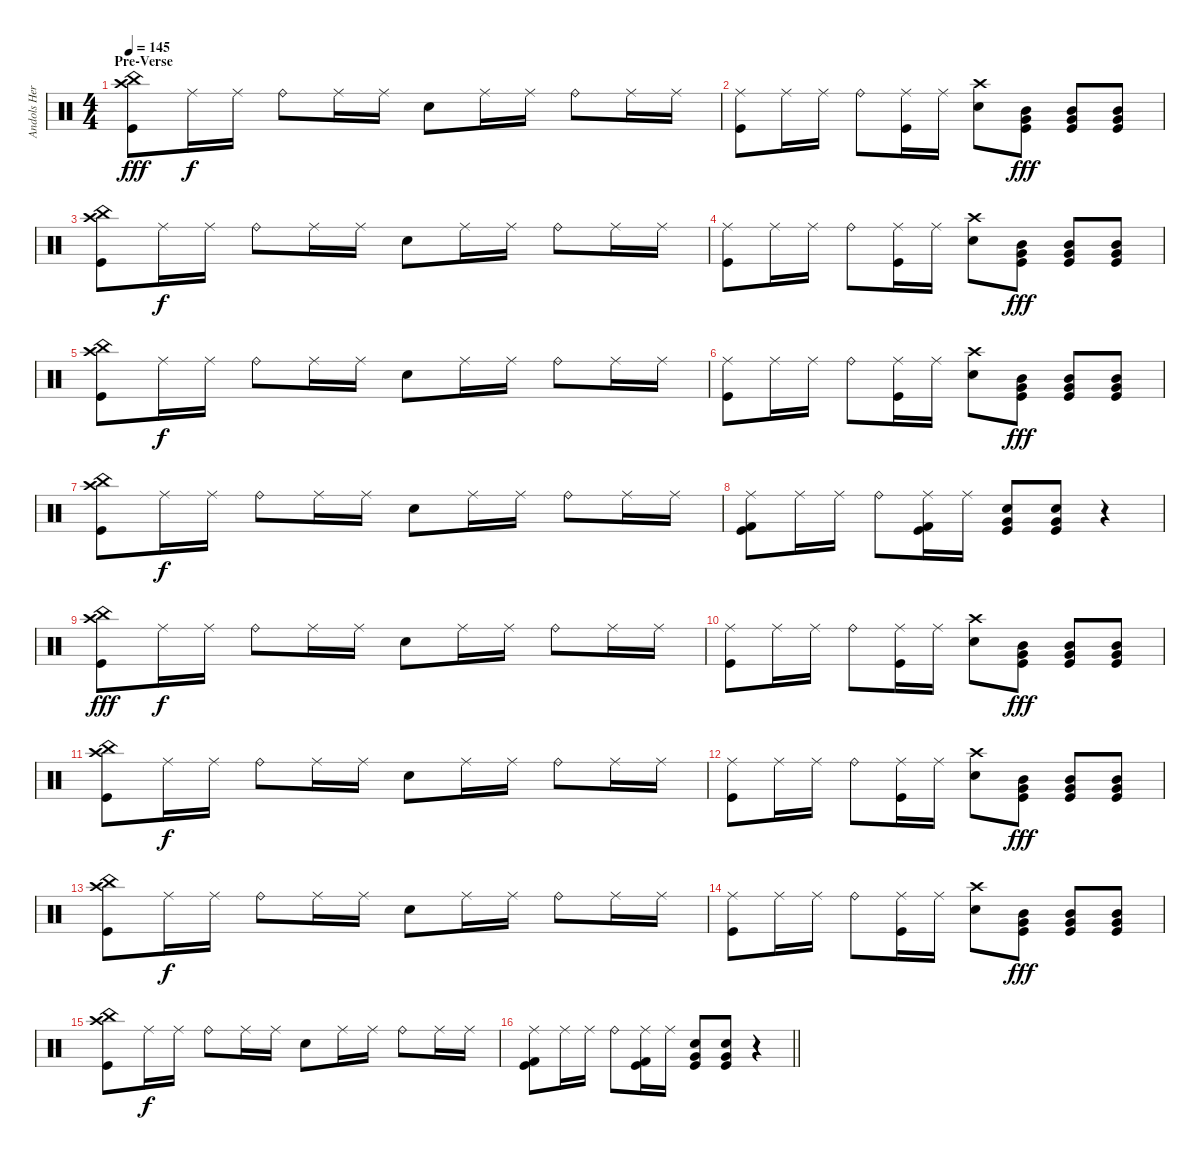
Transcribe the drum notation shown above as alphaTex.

\track ("Andols Herrick" "Andols Her") {instrument percussion}
\staff {score}
\articulation defaults
\ts (4 4)
\section ("" "Pre-Verse")
\tempo 145
\clef neutral
\ks c
("China (hit)" "Crash high (hit)" "Kick (hit)").8{dy fff} "Ride (middle)".16{dy f} "Ride (middle)".16 "Ride (bell)".8 "Ride (middle)".16 "Ride (middle)".16 "Electric Snare (hit)".8 "Ride (middle)".16 "Ride (middle)".16 "Ride (bell)".8 "Ride (middle)".16 "Ride (middle)".16 |
("Ride (middle)" "Kick (hit)").8 "Ride (middle)".16 "Ride (middle)".16 "Ride (bell)".8 ("Ride (middle)" "Kick (hit)").16 "Ride (middle)".16 ("Crash high (hit)" "Electric Snare (hit)").8 ("Very Low Tom (hit)" "Mid Tom (hit)" "Kick (hit)").8{dy fff} ("Very Low Tom (hit)" "Mid Tom (hit)" "Kick (hit)").8 ("Very Low Tom (hit)" "Mid Tom (hit)" "Kick (hit)").8 |
("China (hit)" "Crash high (hit)" "Kick (hit)").8 "Ride (middle)".16{dy f} "Ride (middle)".16 "Ride (bell)".8 "Ride (middle)".16 "Ride (middle)".16 "Electric Snare (hit)".8 "Ride (middle)".16 "Ride (middle)".16 "Ride (bell)".8 "Ride (middle)".16 "Ride (middle)".16 |
("Ride (middle)" "Kick (hit)").8 "Ride (middle)".16 "Ride (middle)".16 "Ride (bell)".8 ("Ride (middle)" "Kick (hit)").16 "Ride (middle)".16 ("Crash high (hit)" "Electric Snare (hit)").8 ("Very Low Tom (hit)" "Mid Tom (hit)" "Kick (hit)").8{dy fff} ("Very Low Tom (hit)" "Mid Tom (hit)" "Kick (hit)").8 ("Very Low Tom (hit)" "Mid Tom (hit)" "Kick (hit)").8 |
("China (hit)" "Crash high (hit)" "Kick (hit)").8 "Ride (middle)".16{dy f} "Ride (middle)".16 "Ride (bell)".8 "Ride (middle)".16 "Ride (middle)".16 "Electric Snare (hit)".8 "Ride (middle)".16 "Ride (middle)".16 "Ride (bell)".8 "Ride (middle)".16 "Ride (middle)".16 |
("Ride (middle)" "Kick (hit)").8 "Ride (middle)".16 "Ride (middle)".16 "Ride (bell)".8 ("Ride (middle)" "Kick (hit)").16 "Ride (middle)".16 ("Crash high (hit)" "Electric Snare (hit)").8 ("Very Low Tom (hit)" "Mid Tom (hit)" "Kick (hit)").8{dy fff} ("Very Low Tom (hit)" "Mid Tom (hit)" "Kick (hit)").8 ("Very Low Tom (hit)" "Mid Tom (hit)" "Kick (hit)").8 |
("China (hit)" "Crash high (hit)" "Kick (hit)").8 "Ride (middle)".16{dy f} "Ride (middle)".16 "Ride (bell)".8 "Ride (middle)".16 "Ride (middle)".16 "Electric Snare (hit)".8 "Ride (middle)".16 "Ride (middle)".16 "Ride (bell)".8 "Ride (middle)".16 "Ride (middle)".16 |
("Ride (middle)" "Kick (hit)" "Kick (hit) 2").8 "Ride (middle)".16 "Ride (middle)".16 "Ride (bell)".8 ("Ride (middle)" "Kick (hit)" "Kick (hit) 2").16 "Ride (middle)".16 ("Electric Snare (hit)" "Very Low Tom (hit)" "Kick (hit)").8 ("Electric Snare (hit)" "Very Low Tom (hit)" "Kick (hit)").8 r.4 |
("China (hit)" "Crash high (hit)" "Kick (hit)").8{dy fff} "Ride (middle)".16{dy f} "Ride (middle)".16 "Ride (bell)".8 "Ride (middle)".16 "Ride (middle)".16 "Electric Snare (hit)".8 "Ride (middle)".16 "Ride (middle)".16 "Ride (bell)".8 "Ride (middle)".16 "Ride (middle)".16 |
("Ride (middle)" "Kick (hit)").8 "Ride (middle)".16 "Ride (middle)".16 "Ride (bell)".8 ("Ride (middle)" "Kick (hit)").16 "Ride (middle)".16 ("Crash high (hit)" "Electric Snare (hit)").8 ("Very Low Tom (hit)" "Mid Tom (hit)" "Kick (hit)").8{dy fff} ("Very Low Tom (hit)" "Mid Tom (hit)" "Kick (hit)").8 ("Very Low Tom (hit)" "Mid Tom (hit)" "Kick (hit)").8 |
("China (hit)" "Crash high (hit)" "Kick (hit)").8 "Ride (middle)".16{dy f} "Ride (middle)".16 "Ride (bell)".8 "Ride (middle)".16 "Ride (middle)".16 "Electric Snare (hit)".8 "Ride (middle)".16 "Ride (middle)".16 "Ride (bell)".8 "Ride (middle)".16 "Ride (middle)".16 |
("Ride (middle)" "Kick (hit)").8 "Ride (middle)".16 "Ride (middle)".16 "Ride (bell)".8 ("Ride (middle)" "Kick (hit)").16 "Ride (middle)".16 ("Crash high (hit)" "Electric Snare (hit)").8 ("Very Low Tom (hit)" "Mid Tom (hit)" "Kick (hit)").8{dy fff} ("Very Low Tom (hit)" "Mid Tom (hit)" "Kick (hit)").8 ("Very Low Tom (hit)" "Mid Tom (hit)" "Kick (hit)").8 |
("China (hit)" "Crash high (hit)" "Kick (hit)").8 "Ride (middle)".16{dy f} "Ride (middle)".16 "Ride (bell)".8 "Ride (middle)".16 "Ride (middle)".16 "Electric Snare (hit)".8 "Ride (middle)".16 "Ride (middle)".16 "Ride (bell)".8 "Ride (middle)".16 "Ride (middle)".16 |
("Ride (middle)" "Kick (hit)").8 "Ride (middle)".16 "Ride (middle)".16 "Ride (bell)".8 ("Ride (middle)" "Kick (hit)").16 "Ride (middle)".16 ("Crash high (hit)" "Electric Snare (hit)").8 ("Very Low Tom (hit)" "Mid Tom (hit)" "Kick (hit)").8{dy fff} ("Very Low Tom (hit)" "Mid Tom (hit)" "Kick (hit)").8 ("Very Low Tom (hit)" "Mid Tom (hit)" "Kick (hit)").8 |
("China (hit)" "Crash high (hit)" "Kick (hit)").8 "Ride (middle)".16{dy f} "Ride (middle)".16 "Ride (bell)".8 "Ride (middle)".16 "Ride (middle)".16 "Electric Snare (hit)".8 "Ride (middle)".16 "Ride (middle)".16 "Ride (bell)".8 "Ride (middle)".16 "Ride (middle)".16 |
\barLineRight lightlight
("Ride (middle)" "Kick (hit)" "Kick (hit) 2").8 "Ride (middle)".16 "Ride (middle)".16 "Ride (bell)".8 ("Ride (middle)" "Kick (hit)" "Kick (hit) 2").16 "Ride (middle)".16 ("Electric Snare (hit)" "Very Low Tom (hit)" "Kick (hit)").8 ("Electric Snare (hit)" "Very Low Tom (hit)" "Kick (hit)").8 r.4
